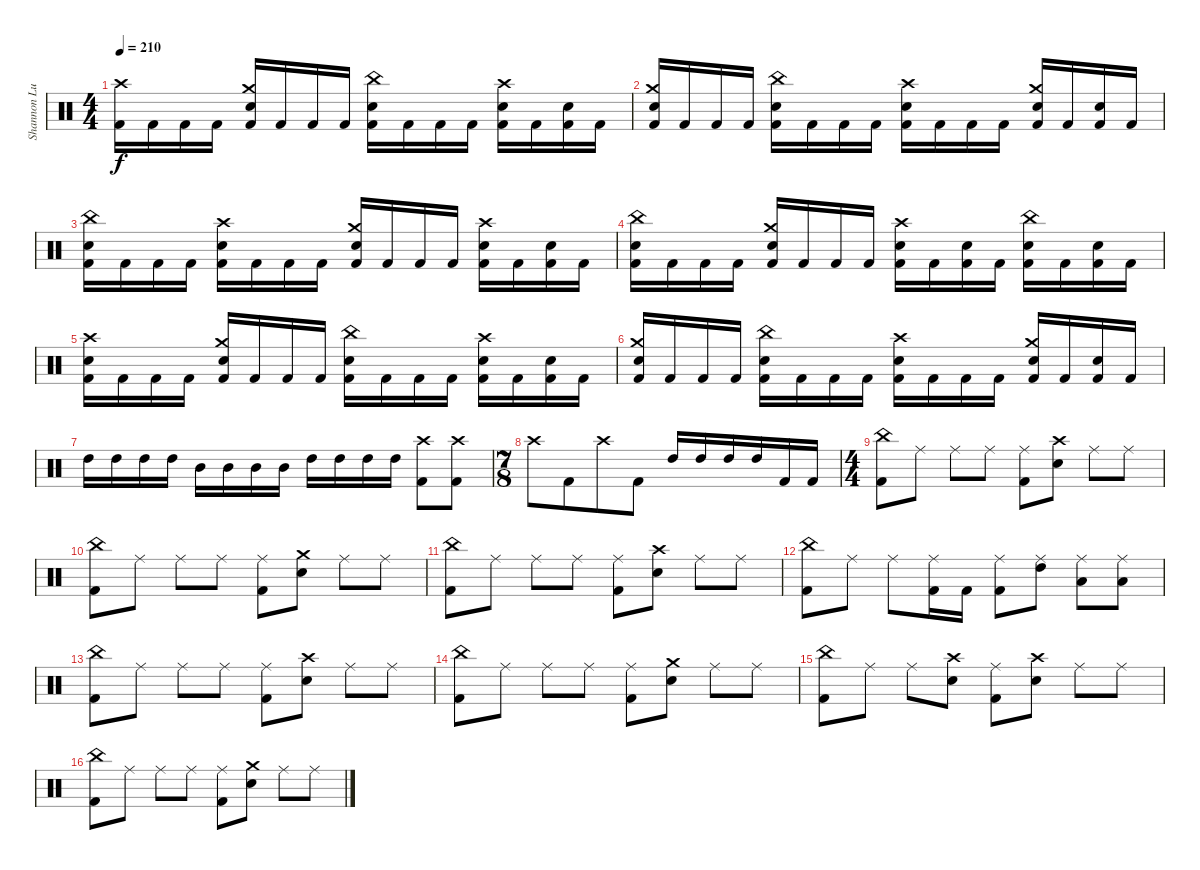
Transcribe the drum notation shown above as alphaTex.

\track ("Shannon Lucas" "Shannon Lu") {instrument percussion}
\staff {score}
\articulation defaults
\ts (4 4)
\tempo 210
\clef neutral
\ks c
("Crash high (hit)" "Kick (hit) 2").16{dy f} "Kick (hit) 2".16 "Kick (hit) 2".16 "Kick (hit) 2".16 ("Crash medium (hit)" "Electric Snare (hit)" "Kick (hit) 2").16 "Kick (hit) 2".16 "Kick (hit) 2".16 "Kick (hit) 2".16 ("China (hit)" "Electric Snare (hit)" "Kick (hit) 2").16 "Kick (hit) 2".16 "Kick (hit) 2".16 "Kick (hit) 2".16 ("Crash high (hit)" "Electric Snare (hit)" "Kick (hit) 2").16 "Kick (hit) 2".16 ("Electric Snare (hit)" "Kick (hit) 2").16 "Kick (hit) 2".16 |
("Crash medium (hit)" "Electric Snare (hit)" "Kick (hit) 2").16 "Kick (hit) 2".16 "Kick (hit) 2".16 "Kick (hit) 2".16 ("China (hit)" "Electric Snare (hit)" "Kick (hit) 2").16 "Kick (hit) 2".16 "Kick (hit) 2".16 "Kick (hit) 2".16 ("Crash high (hit)" "Electric Snare (hit)" "Kick (hit) 2").16 "Kick (hit) 2".16 "Kick (hit) 2".16 "Kick (hit) 2".16 ("Crash medium (hit)" "Electric Snare (hit)" "Kick (hit) 2").16 "Kick (hit) 2".16 ("Electric Snare (hit)" "Kick (hit) 2").16 "Kick (hit) 2".16 |
("China (hit)" "Electric Snare (hit)" "Kick (hit) 2").16 "Kick (hit) 2".16 "Kick (hit) 2".16 "Kick (hit) 2".16 ("Crash high (hit)" "Electric Snare (hit)" "Kick (hit) 2").16 "Kick (hit) 2".16 "Kick (hit) 2".16 "Kick (hit) 2".16 ("Crash medium (hit)" "Electric Snare (hit)" "Kick (hit) 2").16 "Kick (hit) 2".16 "Kick (hit) 2".16 "Kick (hit) 2".16 ("Crash high (hit)" "Electric Snare (hit)" "Kick (hit) 2").16 "Kick (hit) 2".16 ("Electric Snare (hit)" "Kick (hit) 2").16 "Kick (hit) 2".16 |
("China (hit)" "Electric Snare (hit)" "Kick (hit) 2").16 "Kick (hit) 2".16 "Kick (hit) 2".16 "Kick (hit) 2".16 ("Crash medium (hit)" "Electric Snare (hit)" "Kick (hit) 2").16 "Kick (hit) 2".16 "Kick (hit) 2".16 "Kick (hit) 2".16 ("Crash high (hit)" "Electric Snare (hit)" "Kick (hit) 2").16 "Kick (hit) 2".16 ("Electric Snare (hit)" "Kick (hit) 2").16 "Kick (hit) 2".16 ("China (hit)" "Electric Snare (hit)" "Kick (hit) 2").16 "Kick (hit) 2".16 ("Electric Snare (hit)" "Kick (hit) 2").16 "Kick (hit) 2".16 |
("Crash high (hit)" "Electric Snare (hit)" "Kick (hit) 2").16 "Kick (hit) 2".16 "Kick (hit) 2".16 "Kick (hit) 2".16 ("Crash medium (hit)" "Electric Snare (hit)" "Kick (hit) 2").16 "Kick (hit) 2".16 "Kick (hit) 2".16 "Kick (hit) 2".16 ("China (hit)" "Electric Snare (hit)" "Kick (hit) 2").16 "Kick (hit) 2".16 "Kick (hit) 2".16 "Kick (hit) 2".16 ("Crash high (hit)" "Electric Snare (hit)" "Kick (hit) 2").16 "Kick (hit) 2".16 ("Electric Snare (hit)" "Kick (hit) 2").16 "Kick (hit) 2".16 |
("Crash medium (hit)" "Electric Snare (hit)" "Kick (hit) 2").16 "Kick (hit) 2".16 "Kick (hit) 2".16 "Kick (hit) 2".16 ("China (hit)" "Electric Snare (hit)" "Kick (hit) 2").16 "Kick (hit) 2".16 "Kick (hit) 2".16 "Kick (hit) 2".16 ("Crash high (hit)" "Electric Snare (hit)" "Kick (hit) 2").16 "Kick (hit) 2".16 "Kick (hit) 2".16 "Kick (hit) 2".16 ("Crash medium (hit)" "Electric Snare (hit)" "Kick (hit) 2").16 "Kick (hit) 2".16 ("Electric Snare (hit)" "Kick (hit) 2").16 "Kick (hit) 2".16 |
"High Tom (hit)".16 "High Tom (hit)".16 "High Tom (hit)".16 "High Tom (hit)".16 "Mid Tom (hit)".16 "Mid Tom (hit)".16 "Mid Tom (hit)".16 "Mid Tom (hit)".16 "High Tom (hit)".16 "High Tom (hit)".16 "High Tom (hit)".16 "High Tom (hit)".16 ("Crash high (hit)" "Kick (hit) 2").8 ("Crash high (hit)" "Kick (hit) 2").8 |
\ts (7 8)
"Crash high (hit)".8 "Kick (hit) 2".8 "Crash high (hit)".8 "Kick (hit) 2".8 "High Tom (hit)".16 "High Tom (hit)".16 "High Tom (hit)".16 "High Tom (hit)".16 "Kick (hit) 2".16 "Kick (hit) 2".16 |
\ts (4 4)
("China (hit)" "Kick (hit) 2").8 "Ride (middle)".8 "Ride (middle)".8 "Ride (middle)".8 ("Ride (middle)" "Kick (hit) 2").8 ("Crash high (hit)" "Electric Snare (hit)").8 "Ride (middle)".8 "Ride (middle)".8 |
("China (hit)" "Kick (hit) 2").8 "Ride (middle)".8 "Ride (middle)".8 "Ride (middle)".8 ("Ride (middle)" "Kick (hit) 2").8 ("Crash medium (hit)" "Electric Snare (hit)").8 "Ride (middle)".8 "Ride (middle)".8 |
("China (hit)" "Kick (hit) 2").8 "Ride (middle)".8 "Ride (middle)".8 "Ride (middle)".8 ("Ride (middle)" "Kick (hit) 2").8 ("Crash high (hit)" "Electric Snare (hit)").8 "Ride (middle)".8 "Ride (middle)".8 |
("China (hit)" "Kick (hit) 2").8 "Ride (middle)".8 "Ride (middle)".8 ("Ride (middle)" "Kick (hit) 2").16 "Kick (hit) 2".16 ("Ride (middle)" "Kick (hit) 2").8 ("Ride (middle)" "High Tom (hit)").8 ("Ride (middle)" "Low Tom (hit)").8 ("Ride (middle)" "Low Tom (hit)").8 |
("China (hit)" "Kick (hit) 2").8 "Ride (middle)".8 "Ride (middle)".8 "Ride (middle)".8 ("Ride (middle)" "Kick (hit) 2").8 ("Crash high (hit)" "Electric Snare (hit)").8 "Ride (middle)".8 "Ride (middle)".8 |
("China (hit)" "Kick (hit) 2").8 "Ride (middle)".8 "Ride (middle)".8 "Ride (middle)".8 ("Ride (middle)" "Kick (hit) 2").8 ("Crash medium (hit)" "Electric Snare (hit)").8 "Ride (middle)".8 "Ride (middle)".8 |
("China (hit)" "Kick (hit) 2").8 "Ride (middle)".8 "Ride (middle)".8 ("Crash high (hit)" "Electric Snare (hit)").8 ("Ride (middle)" "Kick (hit) 2").8 ("Crash high (hit)" "Electric Snare (hit)").8 "Ride (middle)".8 "Ride (middle)".8 |
("China (hit)" "Kick (hit) 2").8 "Ride (middle)".8 "Ride (middle)".8 "Ride (middle)".8 ("Ride (middle)" "Kick (hit) 2").8 ("Crash medium (hit)" "Electric Snare (hit)").8 "Ride (middle)".8 "Ride (middle)".8
